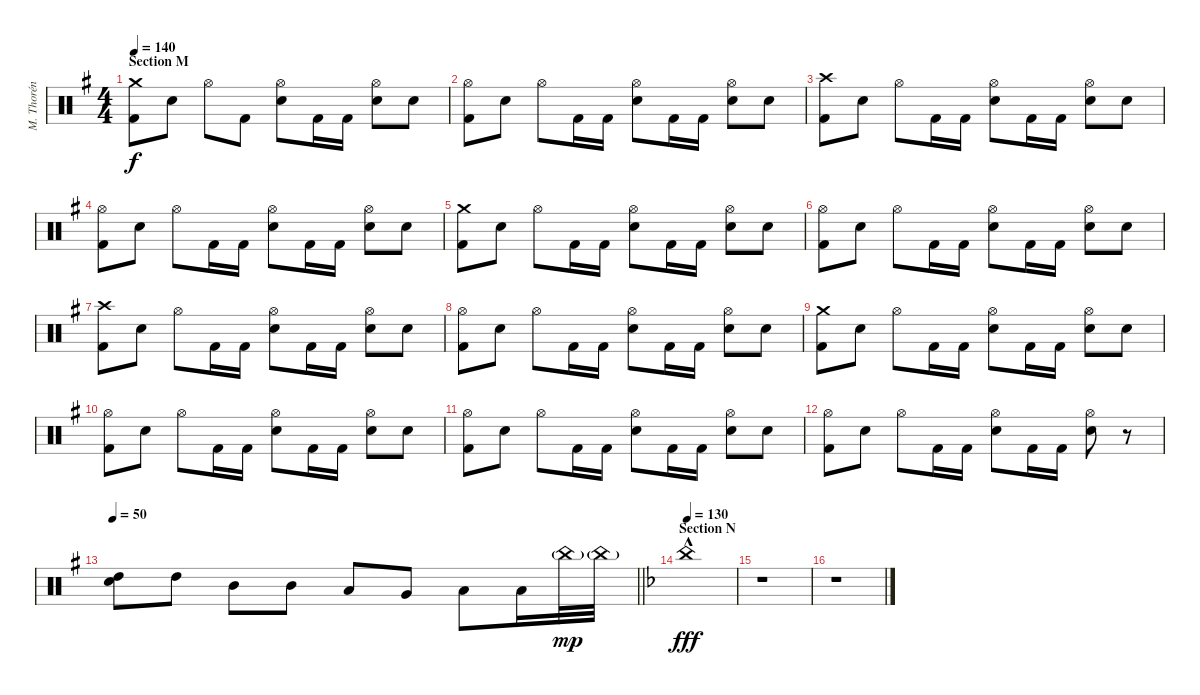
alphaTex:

\track ("M. Thorén (Drums)" "M. Thorén ") {instrument percussion}
\staff {score}
\articulation defaults
\ts (4 4)
\section ("" "Section M")
\tempo 140
\clef neutral
\ks g
("Crash medium (hit)" "Kick (hit) 2").8{dy f} "Electric Snare (hit)".8 "Hi-Hat (open)".8 "Kick (hit) 2".8 ("Hi-Hat (open)" "Electric Snare (hit)").8 "Kick (hit) 2".16 "Kick (hit) 2".16 ("Hi-Hat (open)" "Electric Snare (hit)").8 "Electric Snare (hit)".8 |
("Hi-Hat (open)" "Kick (hit) 2").8 "Electric Snare (hit)".8 "Hi-Hat (open)".8 "Kick (hit) 2".16 "Kick (hit) 2".16 ("Hi-Hat (open)" "Electric Snare (hit)").8 "Kick (hit) 2".16 "Kick (hit) 2".16 ("Hi-Hat (open)" "Electric Snare (hit)").8 "Electric Snare (hit)".8 |
("Crash high (hit)" "Kick (hit) 2").8 "Electric Snare (hit)".8 "Hi-Hat (open)".8 "Kick (hit) 2".16 "Kick (hit) 2".16 ("Hi-Hat (open)" "Electric Snare (hit)").8 "Kick (hit) 2".16 "Kick (hit) 2".16 ("Hi-Hat (open)" "Electric Snare (hit)").8 "Electric Snare (hit)".8 |
("Hi-Hat (open)" "Kick (hit) 2").8 "Electric Snare (hit)".8 "Hi-Hat (open)".8 "Kick (hit) 2".16 "Kick (hit) 2".16 ("Hi-Hat (open)" "Electric Snare (hit)").8 "Kick (hit) 2".16 "Kick (hit) 2".16 ("Hi-Hat (open)" "Electric Snare (hit)").8 "Electric Snare (hit)".8 |
("Crash medium (hit)" "Kick (hit) 2").8 "Electric Snare (hit)".8 "Hi-Hat (open)".8 "Kick (hit) 2".16 "Kick (hit) 2".16 ("Hi-Hat (open)" "Electric Snare (hit)").8 "Kick (hit) 2".16 "Kick (hit) 2".16 ("Hi-Hat (open)" "Electric Snare (hit)").8 "Electric Snare (hit)".8 |
("Hi-Hat (open)" "Kick (hit) 2").8 "Electric Snare (hit)".8 "Hi-Hat (open)".8 "Kick (hit) 2".16 "Kick (hit) 2".16 ("Hi-Hat (open)" "Electric Snare (hit)").8 "Kick (hit) 2".16 "Kick (hit) 2".16 ("Hi-Hat (open)" "Electric Snare (hit)").8 "Electric Snare (hit)".8 |
("Crash high (hit)" "Kick (hit) 2").8 "Electric Snare (hit)".8 "Hi-Hat (open)".8 "Kick (hit) 2".16 "Kick (hit) 2".16 ("Hi-Hat (open)" "Electric Snare (hit)").8 "Kick (hit) 2".16 "Kick (hit) 2".16 ("Hi-Hat (open)" "Electric Snare (hit)").8 "Electric Snare (hit)".8 |
("Hi-Hat (open)" "Kick (hit) 2").8 "Electric Snare (hit)".8 "Hi-Hat (open)".8 "Kick (hit) 2".16 "Kick (hit) 2".16 ("Hi-Hat (open)" "Electric Snare (hit)").8 "Kick (hit) 2".16 "Kick (hit) 2".16 ("Hi-Hat (open)" "Electric Snare (hit)").8 "Electric Snare (hit)".8 |
("Crash medium (hit)" "Kick (hit) 2").8 "Electric Snare (hit)".8 "Hi-Hat (open)".8 "Kick (hit) 2".16 "Kick (hit) 2".16 ("Hi-Hat (open)" "Electric Snare (hit)").8 "Kick (hit) 2".16 "Kick (hit) 2".16 ("Hi-Hat (open)" "Electric Snare (hit)").8 "Electric Snare (hit)".8 |
("Hi-Hat (open)" "Kick (hit) 2").8 "Electric Snare (hit)".8 "Hi-Hat (open)".8 "Kick (hit) 2".16 "Kick (hit) 2".16 ("Hi-Hat (open)" "Electric Snare (hit)").8 "Kick (hit) 2".16 "Kick (hit) 2".16 ("Hi-Hat (open)" "Electric Snare (hit)").8 "Electric Snare (hit)".8 |
("Hi-Hat (open)" "Kick (hit) 2").8 "Electric Snare (hit)".8 "Hi-Hat (open)".8 "Kick (hit) 2".16 "Kick (hit) 2".16 ("Hi-Hat (open)" "Electric Snare (hit)").8 "Kick (hit) 2".16 "Kick (hit) 2".16 ("Hi-Hat (open)" "Electric Snare (hit)").8 "Electric Snare (hit)".8 |
("Hi-Hat (open)" "Kick (hit) 2").8 "Electric Snare (hit)".8 "Hi-Hat (open)".8 "Kick (hit) 2".16 "Kick (hit) 2".16 ("Hi-Hat (open)" "Electric Snare (hit)").8 "Kick (hit) 2".16 "Kick (hit) 2".16 ("Hi-Hat (open)" "Electric Snare (hit)").8 r.8 |
\tempo 50
\barLineRight lightlight
("High Tom (hit)" "Electric Snare (hit)").8 "High Tom (hit)".8 "Mid Tom (hit)".8 "Mid Tom (hit)".8 "Low Tom (hit)".8 "Very Low Tom (hit)".8 "Low Floor Tom (hit)".8 "Low Floor Tom (hit)".16 "China (hit)"{g}.32{dy mp} "China (hit)"{g}.32 |
\section ("" "Section N")
\tempo 130
\ks dminor "China (hit)"{hac}.1{dy fff}
|
r.1 |
r.1
